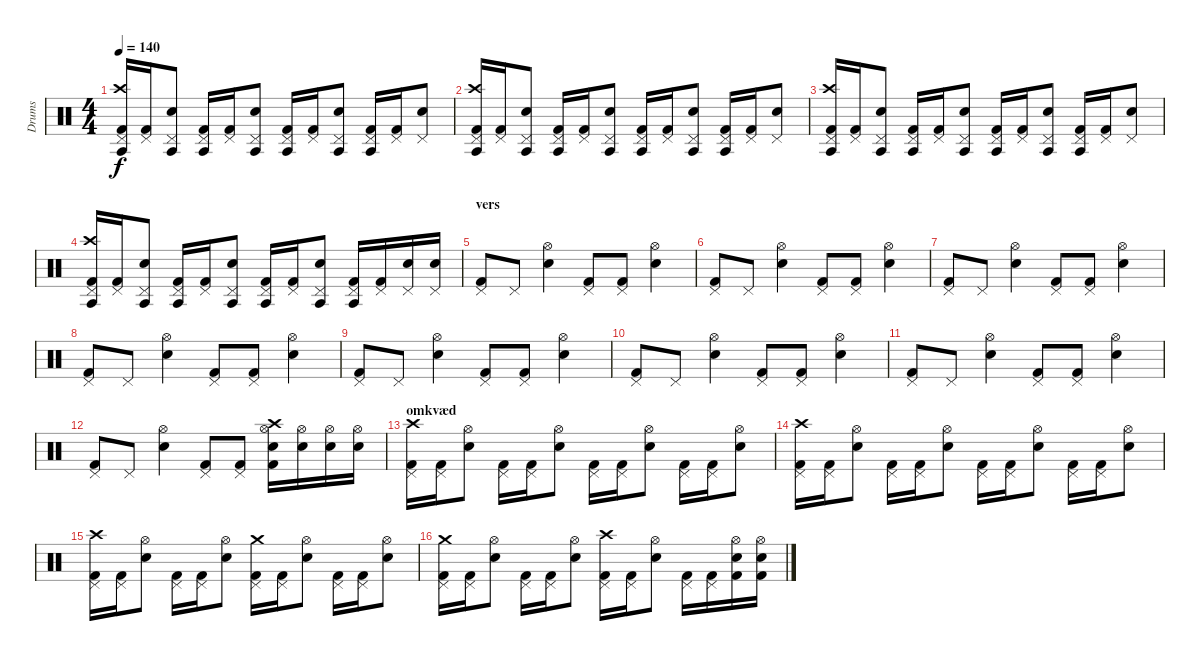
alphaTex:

\track ("Drums" "Drums") {instrument percussion}
\staff {score}
\articulation defaults
\ts (4 4)
\tempo 140
\clef neutral
\ks c
("Crash high (hit)" "Pedal Hi-Hat (hit)" "Kick (hit) 2" "Agogo tow (hit)").16{dy f} ("Pedal Hi-Hat (hit)" "Kick (hit) 2").16 ("Pedal Hi-Hat (hit)" "Snare (hit) 2" "Agogo tow (hit)").8 ("Pedal Hi-Hat (hit)" "Kick (hit) 2" "Agogo tow (hit)").16 ("Pedal Hi-Hat (hit)" "Kick (hit) 2").16 ("Pedal Hi-Hat (hit)" "Snare (hit) 2" "Agogo tow (hit)").8 ("Pedal Hi-Hat (hit)" "Kick (hit) 2" "Agogo tow (hit)").16 ("Pedal Hi-Hat (hit)" "Kick (hit) 2").16 ("Pedal Hi-Hat (hit)" "Snare (hit) 2" "Agogo tow (hit)").8 ("Pedal Hi-Hat (hit)" "Kick (hit) 2" "Agogo tow (hit)").16 ("Pedal Hi-Hat (hit)" "Kick (hit) 2").16 ("Pedal Hi-Hat (hit)" "Snare (hit) 2").8 |
("Crash high (hit)" "Pedal Hi-Hat (hit)" "Kick (hit) 2" "Agogo tow (hit)").16 ("Pedal Hi-Hat (hit)" "Kick (hit) 2").16 ("Pedal Hi-Hat (hit)" "Snare (hit) 2" "Agogo tow (hit)").8 ("Pedal Hi-Hat (hit)" "Kick (hit) 2" "Agogo tow (hit)").16 ("Pedal Hi-Hat (hit)" "Kick (hit) 2").16 ("Pedal Hi-Hat (hit)" "Snare (hit) 2" "Agogo tow (hit)").8 ("Pedal Hi-Hat (hit)" "Kick (hit) 2" "Agogo tow (hit)").16 ("Pedal Hi-Hat (hit)" "Kick (hit) 2").16 ("Pedal Hi-Hat (hit)" "Snare (hit) 2" "Agogo tow (hit)").8 ("Pedal Hi-Hat (hit)" "Kick (hit) 2" "Agogo tow (hit)").16 ("Pedal Hi-Hat (hit)" "Kick (hit) 2").16 ("Pedal Hi-Hat (hit)" "Snare (hit) 2").8 |
("Crash high (hit)" "Pedal Hi-Hat (hit)" "Kick (hit) 2" "Agogo tow (hit)").16 ("Pedal Hi-Hat (hit)" "Kick (hit) 2").16 ("Pedal Hi-Hat (hit)" "Snare (hit) 2" "Agogo tow (hit)").8 ("Pedal Hi-Hat (hit)" "Kick (hit) 2" "Agogo tow (hit)").16 ("Pedal Hi-Hat (hit)" "Kick (hit) 2").16 ("Pedal Hi-Hat (hit)" "Snare (hit) 2" "Agogo tow (hit)").8 ("Pedal Hi-Hat (hit)" "Kick (hit) 2" "Agogo tow (hit)").16 ("Pedal Hi-Hat (hit)" "Kick (hit) 2").16 ("Pedal Hi-Hat (hit)" "Snare (hit) 2" "Agogo tow (hit)").8 ("Pedal Hi-Hat (hit)" "Kick (hit) 2" "Agogo tow (hit)").16 ("Pedal Hi-Hat (hit)" "Kick (hit) 2").16 ("Pedal Hi-Hat (hit)" "Snare (hit) 2").8 |
("Crash high (hit)" "Pedal Hi-Hat (hit)" "Kick (hit) 2" "Agogo tow (hit)").16 ("Pedal Hi-Hat (hit)" "Kick (hit) 2").16 ("Pedal Hi-Hat (hit)" "Snare (hit) 2" "Agogo tow (hit)").8 ("Pedal Hi-Hat (hit)" "Kick (hit) 2" "Agogo tow (hit)").16 ("Pedal Hi-Hat (hit)" "Kick (hit) 2").16 ("Pedal Hi-Hat (hit)" "Snare (hit) 2" "Agogo tow (hit)").8 ("Pedal Hi-Hat (hit)" "Kick (hit) 2" "Agogo tow (hit)").16 ("Pedal Hi-Hat (hit)" "Kick (hit) 2").16 ("Pedal Hi-Hat (hit)" "Snare (hit) 2" "Agogo tow (hit)").8 ("Pedal Hi-Hat (hit)" "Kick (hit) 2" "Agogo tow (hit)").16 ("Pedal Hi-Hat (hit)" "Kick (hit) 2").16 ("Pedal Hi-Hat (hit)" "Snare (hit) 2").16 ("Pedal Hi-Hat (hit)" "Snare (hit) 2").16 |
\section ("" "vers")
("Pedal Hi-Hat (hit)" "Kick (hit) 2").8 "Pedal Hi-Hat (hit)".8 ("Hi-Hat (open)" "Snare (hit) 2").4 ("Pedal Hi-Hat (hit)" "Kick (hit) 2").8 ("Pedal Hi-Hat (hit)" "Kick (hit) 2").8 ("Hi-Hat (open)" "Snare (hit) 2").4 |
("Pedal Hi-Hat (hit)" "Kick (hit) 2").8 "Pedal Hi-Hat (hit)".8 ("Hi-Hat (open)" "Snare (hit) 2").4 ("Pedal Hi-Hat (hit)" "Kick (hit) 2").8 ("Pedal Hi-Hat (hit)" "Kick (hit) 2").8 ("Hi-Hat (open)" "Snare (hit) 2").4 |
("Pedal Hi-Hat (hit)" "Kick (hit) 2").8 "Pedal Hi-Hat (hit)".8 ("Hi-Hat (open)" "Snare (hit) 2").4 ("Pedal Hi-Hat (hit)" "Kick (hit) 2").8 ("Pedal Hi-Hat (hit)" "Kick (hit) 2").8 ("Hi-Hat (open)" "Snare (hit) 2").4 |
("Pedal Hi-Hat (hit)" "Kick (hit) 2").8 "Pedal Hi-Hat (hit)".8 ("Hi-Hat (open)" "Snare (hit) 2").4 ("Pedal Hi-Hat (hit)" "Kick (hit) 2").8 ("Pedal Hi-Hat (hit)" "Kick (hit) 2").8 ("Hi-Hat (open)" "Snare (hit) 2").4 |
("Pedal Hi-Hat (hit)" "Kick (hit) 2").8 "Pedal Hi-Hat (hit)".8 ("Hi-Hat (open)" "Snare (hit) 2").4 ("Pedal Hi-Hat (hit)" "Kick (hit) 2").8 ("Pedal Hi-Hat (hit)" "Kick (hit) 2").8 ("Hi-Hat (open)" "Snare (hit) 2").4 |
("Pedal Hi-Hat (hit)" "Kick (hit) 2").8 "Pedal Hi-Hat (hit)".8 ("Hi-Hat (open)" "Snare (hit) 2").4 ("Pedal Hi-Hat (hit)" "Kick (hit) 2").8 ("Pedal Hi-Hat (hit)" "Kick (hit) 2").8 ("Hi-Hat (open)" "Snare (hit) 2").4 |
("Pedal Hi-Hat (hit)" "Kick (hit) 2").8 "Pedal Hi-Hat (hit)".8 ("Hi-Hat (open)" "Snare (hit) 2").4 ("Pedal Hi-Hat (hit)" "Kick (hit) 2").8 ("Pedal Hi-Hat (hit)" "Kick (hit) 2").8 ("Hi-Hat (open)" "Snare (hit) 2").4 |
("Pedal Hi-Hat (hit)" "Kick (hit) 2").8 "Pedal Hi-Hat (hit)".8 ("Hi-Hat (open)" "Snare (hit) 2").4 ("Pedal Hi-Hat (hit)" "Kick (hit) 2").8 ("Pedal Hi-Hat (hit)" "Kick (hit) 2").8 ("Crash high (hit)" "Hi-Hat (open)" "Snare (hit) 2" "Kick (hit) 2").16 ("Hi-Hat (open)" "Snare (hit) 2").16 ("Hi-Hat (open)" "Snare (hit) 2").16 ("Hi-Hat (open)" "Snare (hit) 2").16 |
\section ("" "omkvæd")
("Crash high (hit)" "Pedal Hi-Hat (hit)" "Kick (hit) 2").16 ("Pedal Hi-Hat (hit)" "Kick (hit) 2").16 ("Hi-Hat (open)" "Snare (hit) 2").8 ("Pedal Hi-Hat (hit)" "Kick (hit) 2").16 ("Pedal Hi-Hat (hit)" "Kick (hit) 2").16 ("Hi-Hat (open)" "Snare (hit) 2").8 ("Pedal Hi-Hat (hit)" "Kick (hit) 2").16 ("Pedal Hi-Hat (hit)" "Kick (hit) 2").16 ("Hi-Hat (open)" "Snare (hit) 2").8 ("Pedal Hi-Hat (hit)" "Kick (hit) 2").16 ("Pedal Hi-Hat (hit)" "Kick (hit) 2").16 ("Hi-Hat (open)" "Snare (hit) 2").8 |
("Crash high (hit)" "Pedal Hi-Hat (hit)" "Kick (hit) 2").16 ("Pedal Hi-Hat (hit)" "Kick (hit) 2").16 ("Hi-Hat (open)" "Snare (hit) 2").8 ("Pedal Hi-Hat (hit)" "Kick (hit) 2").16 ("Pedal Hi-Hat (hit)" "Kick (hit) 2").16 ("Hi-Hat (open)" "Snare (hit) 2").8 ("Pedal Hi-Hat (hit)" "Kick (hit) 2").16 ("Pedal Hi-Hat (hit)" "Kick (hit) 2").16 ("Hi-Hat (open)" "Snare (hit) 2").8 ("Pedal Hi-Hat (hit)" "Kick (hit) 2").16 ("Pedal Hi-Hat (hit)" "Kick (hit) 2").16 ("Hi-Hat (open)" "Snare (hit) 2").8 |
("Crash high (hit)" "Pedal Hi-Hat (hit)" "Kick (hit) 2").16 ("Pedal Hi-Hat (hit)" "Kick (hit) 2").16 ("Hi-Hat (open)" "Snare (hit) 2").8 ("Pedal Hi-Hat (hit)" "Kick (hit) 2").16 ("Pedal Hi-Hat (hit)" "Kick (hit) 2").16 ("Hi-Hat (open)" "Snare (hit) 2").8 ("Crash medium (hit)" "Pedal Hi-Hat (hit)" "Kick (hit) 2").16 ("Pedal Hi-Hat (hit)" "Kick (hit) 2").16 ("Hi-Hat (open)" "Snare (hit) 2").8 ("Pedal Hi-Hat (hit)" "Kick (hit) 2").16 ("Pedal Hi-Hat (hit)" "Kick (hit) 2").16 ("Hi-Hat (open)" "Snare (hit) 2").8 |
("Crash medium (hit)" "Pedal Hi-Hat (hit)" "Kick (hit) 2").16 ("Pedal Hi-Hat (hit)" "Kick (hit) 2").16 ("Hi-Hat (open)" "Snare (hit) 2").8 ("Pedal Hi-Hat (hit)" "Kick (hit) 2").16 ("Pedal Hi-Hat (hit)" "Kick (hit) 2").16 ("Hi-Hat (open)" "Snare (hit) 2").8 ("Crash high (hit)" "Pedal Hi-Hat (hit)" "Kick (hit) 2").16 ("Pedal Hi-Hat (hit)" "Kick (hit) 2").16 ("Hi-Hat (open)" "Snare (hit) 2").8 ("Pedal Hi-Hat (hit)" "Kick (hit) 2").16 ("Pedal Hi-Hat (hit)" "Kick (hit) 2").16 ("Hi-Hat (open)" "Snare (hit) 2" "Kick (hit) 2").16 ("Hi-Hat (open)" "Snare (hit) 2" "Kick (hit) 2").16
